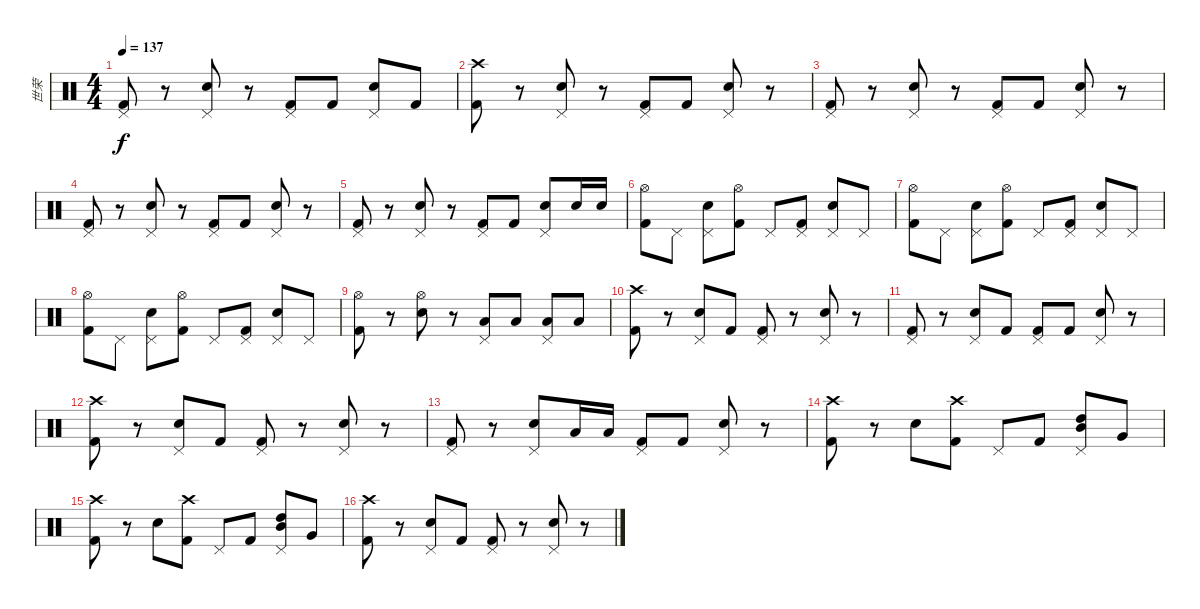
\track ("世荣" "世荣") {instrument percussion}
\staff {score}
\articulation defaults
\ts (4 4)
\tempo 137
\clef neutral
\ks c
("Pedal Hi-Hat (hit)" "Kick (hit) 2").8{dy f} r.8 ("Pedal Hi-Hat (hit)" "Electric Snare (hit)").8 r.8 ("Pedal Hi-Hat (hit)" "Kick (hit) 2").8 "Kick (hit) 2".8 ("Pedal Hi-Hat (hit)" "Electric Snare (hit)").8 "Kick (hit) 2".8 |
("Crash high (hit)" "Kick (hit) 2").8 r.8 ("Pedal Hi-Hat (hit)" "Electric Snare (hit)").8 r.8 ("Pedal Hi-Hat (hit)" "Kick (hit) 2").8 "Kick (hit) 2".8 ("Pedal Hi-Hat (hit)" "Electric Snare (hit)").8 r.8 |
("Pedal Hi-Hat (hit)" "Kick (hit) 2").8 r.8 ("Pedal Hi-Hat (hit)" "Electric Snare (hit)").8 r.8 ("Pedal Hi-Hat (hit)" "Kick (hit) 2").8 "Kick (hit) 2".8 ("Pedal Hi-Hat (hit)" "Electric Snare (hit)").8 r.8 |
("Pedal Hi-Hat (hit)" "Kick (hit) 2").8 r.8 ("Pedal Hi-Hat (hit)" "Electric Snare (hit)").8 r.8 ("Pedal Hi-Hat (hit)" "Kick (hit) 2").8 "Kick (hit) 2".8 ("Pedal Hi-Hat (hit)" "Electric Snare (hit)").8 r.8 |
("Pedal Hi-Hat (hit)" "Kick (hit) 2").8 r.8 ("Pedal Hi-Hat (hit)" "Electric Snare (hit)").8 r.8 ("Pedal Hi-Hat (hit)" "Kick (hit) 2").8 "Kick (hit) 2".8 ("Pedal Hi-Hat (hit)" "Electric Snare (hit)").8 "Electric Snare (hit)".16 "Electric Snare (hit)".16 |
("Hi-Hat (open)" "Kick (hit) 2").8 "Pedal Hi-Hat (hit)".8 ("Pedal Hi-Hat (hit)" "Electric Snare (hit)").8 ("Hi-Hat (open)" "Kick (hit) 2").8 "Pedal Hi-Hat (hit)".8 ("Pedal Hi-Hat (hit)" "Kick (hit) 2").8 ("Pedal Hi-Hat (hit)" "Electric Snare (hit)").8 "Pedal Hi-Hat (hit)".8 |
("Hi-Hat (open)" "Kick (hit) 2").8 "Pedal Hi-Hat (hit)".8 ("Pedal Hi-Hat (hit)" "Electric Snare (hit)").8 ("Hi-Hat (open)" "Kick (hit) 2").8 "Pedal Hi-Hat (hit)".8 ("Pedal Hi-Hat (hit)" "Kick (hit) 2").8 ("Pedal Hi-Hat (hit)" "Electric Snare (hit)").8 "Pedal Hi-Hat (hit)".8 |
("Hi-Hat (open)" "Kick (hit) 2").8 "Pedal Hi-Hat (hit)".8 ("Pedal Hi-Hat (hit)" "Electric Snare (hit)").8 ("Hi-Hat (open)" "Kick (hit) 2").8 "Pedal Hi-Hat (hit)".8 ("Pedal Hi-Hat (hit)" "Kick (hit) 2").8 ("Pedal Hi-Hat (hit)" "Electric Snare (hit)").8 "Pedal Hi-Hat (hit)".8 |
("Hi-Hat (open)" "Kick (hit) 2").8 r.8 ("Hi-Hat (open)" "Electric Snare (hit)").8 r.8 ("Pedal Hi-Hat (hit)" "Low Tom (hit)").8 "Low Tom (hit)".8 ("Pedal Hi-Hat (hit)" "Low Floor Tom (hit)").8 "Low Floor Tom (hit)".8 |
("Crash high (hit)" "Kick (hit) 2").8 r.8 ("Pedal Hi-Hat (hit)" "Electric Snare (hit)").8 "Kick (hit) 2".8 ("Pedal Hi-Hat (hit)" "Kick (hit) 2").8 r.8 ("Pedal Hi-Hat (hit)" "Electric Snare (hit)").8 r.8 |
("Pedal Hi-Hat (hit)" "Kick (hit) 2").8 r.8 ("Pedal Hi-Hat (hit)" "Electric Snare (hit)").8 "Kick (hit) 2".8 ("Pedal Hi-Hat (hit)" "Kick (hit) 2").8 "Kick (hit) 2".8 ("Pedal Hi-Hat (hit)" "Electric Snare (hit)").8 r.8 |
("Crash high (hit)" "Kick (hit) 2").8 r.8 ("Pedal Hi-Hat (hit)" "Electric Snare (hit)").8 "Kick (hit) 2".8 ("Pedal Hi-Hat (hit)" "Kick (hit) 2").8 r.8 ("Pedal Hi-Hat (hit)" "Electric Snare (hit)").8 r.8 |
("Pedal Hi-Hat (hit)" "Kick (hit) 2").8 r.8 ("Pedal Hi-Hat (hit)" "Electric Snare (hit)").8 "Low Tom (hit)".16 "Low Tom (hit)".16 ("Pedal Hi-Hat (hit)" "Kick (hit) 2").8 "Kick (hit) 2".8 ("Pedal Hi-Hat (hit)" "Electric Snare (hit)").8 r.8 |
("Crash high (hit)" "Kick (hit) 2").8 r.8 "Electric Snare (hit)".8 ("Crash high (hit)" "Kick (hit) 2").8 "Pedal Hi-Hat (hit)".8 "Kick (hit) 2".8 ("Pedal Hi-Hat (hit)" "Mid Tom (hit)" "High Tom (hit)").8 "Very Low Tom (hit)".8 |
("Crash high (hit)" "Kick (hit) 2").8 r.8 "Electric Snare (hit)".8 ("Crash high (hit)" "Kick (hit) 2").8 "Pedal Hi-Hat (hit)".8 "Kick (hit) 2".8 ("Pedal Hi-Hat (hit)" "Mid Tom (hit)" "High Tom (hit)").8 "Very Low Tom (hit)".8 |
("Crash high (hit)" "Kick (hit) 2").8 r.8 ("Pedal Hi-Hat (hit)" "Electric Snare (hit)").8 "Kick (hit) 2".8 ("Pedal Hi-Hat (hit)" "Kick (hit) 2").8 r.8 ("Pedal Hi-Hat (hit)" "Electric Snare (hit)").8 r.8
